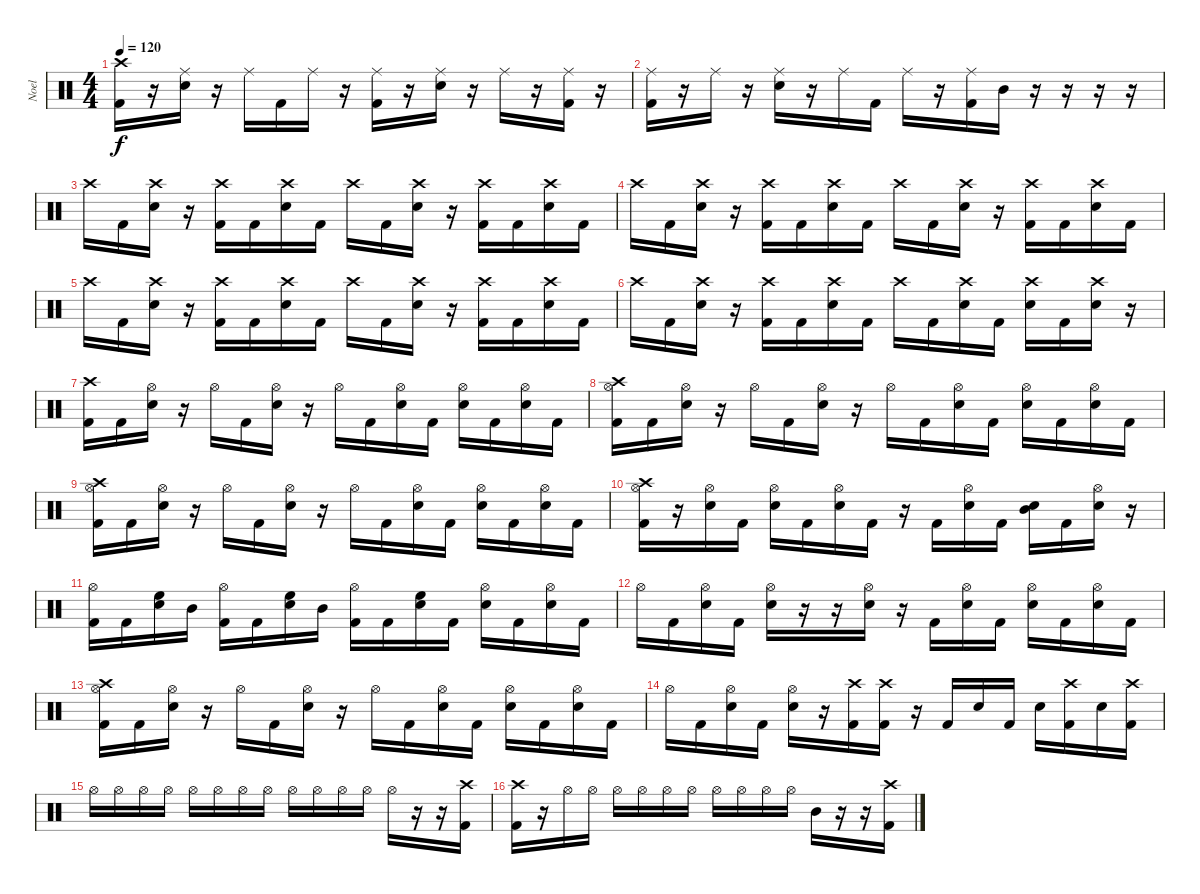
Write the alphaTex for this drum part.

\track ("Noel" "Noel") {instrument percussion}
\staff {score}
\articulation defaults
\ts (4 4)
\tempo 120
\clef neutral
\ks c
("Crash high (hit)" "Kick (hit) 2").16{dy f} r.16 ("Ride (middle)" "Snare (hit) 2").16 r.16 "Ride (middle)".16 "Kick (hit) 2".16 "Ride (middle)".16 r.16 ("Ride (middle)" "Kick (hit) 2").16 r.16 ("Ride (middle)" "Snare (hit) 2").16 r.16 "Ride (middle)".16 r.16 ("Ride (middle)" "Kick (hit) 2").16 r.16 |
("Ride (middle)" "Kick (hit) 2").16 r.16 "Ride (middle)".16 r.16 ("Ride (middle)" "Snare (hit) 2").16 r.16 "Ride (middle)".16 "Kick (hit) 2".16 "Ride (middle)".16 r.16 ("Ride (middle)" "Kick (hit) 2").16 "Mid Tom (hit)".16 r.16 r.16 r.16 r.16 |
"Crash high (hit)".16 "Kick (hit) 2".16 ("Crash high (hit)" "Snare (hit) 2").16 r.16 ("Crash high (hit)" "Kick (hit) 2").16 "Kick (hit) 2".16 ("Crash high (hit)" "Snare (hit) 2").16 "Kick (hit) 2".16 "Crash high (hit)".16 "Kick (hit) 2".16 ("Crash high (hit)" "Snare (hit) 2").16 r.16 ("Crash high (hit)" "Kick (hit) 2").16 "Kick (hit) 2".16 ("Crash high (hit)" "Snare (hit) 2").16 "Kick (hit) 2".16 |
"Crash high (hit)".16 "Kick (hit) 2".16 ("Crash high (hit)" "Snare (hit) 2").16 r.16 ("Crash high (hit)" "Kick (hit) 2").16 "Kick (hit) 2".16 ("Crash high (hit)" "Snare (hit) 2").16 "Kick (hit) 2".16 "Crash high (hit)".16 "Kick (hit) 2".16 ("Crash high (hit)" "Snare (hit) 2").16 r.16 ("Crash high (hit)" "Kick (hit) 2").16 "Kick (hit) 2".16 ("Crash high (hit)" "Snare (hit) 2").16 "Kick (hit) 2".16 |
"Crash high (hit)".16 "Kick (hit) 2".16 ("Crash high (hit)" "Snare (hit) 2").16 r.16 ("Crash high (hit)" "Kick (hit) 2").16 "Kick (hit) 2".16 ("Crash high (hit)" "Snare (hit) 2").16 "Kick (hit) 2".16 "Crash high (hit)".16 "Kick (hit) 2".16 ("Crash high (hit)" "Snare (hit) 2").16 r.16 ("Crash high (hit)" "Kick (hit) 2").16 "Kick (hit) 2".16 ("Crash high (hit)" "Snare (hit) 2").16 "Kick (hit) 2".16 |
"Crash high (hit)".16 "Kick (hit) 2".16 ("Crash high (hit)" "Snare (hit) 2").16 r.16 ("Crash high (hit)" "Kick (hit) 2").16 "Kick (hit) 2".16 ("Crash high (hit)" "Snare (hit) 2").16 "Kick (hit) 2".16 "Crash high (hit)".16 "Kick (hit) 2".16 ("Crash high (hit)" "Snare (hit) 2").16 "Kick (hit) 2".16 ("Crash high (hit)" "Snare (hit) 2").16 "Kick (hit) 2".16 ("Crash high (hit)" "Snare (hit) 2").16 r.16 |
("Crash high (hit)" "Kick (hit) 2").16 "Kick (hit) 2".16 ("Hi-Hat (open)" "Snare (hit) 2").16 r.16 "Hi-Hat (open)".16 "Kick (hit) 2".16 ("Hi-Hat (open)" "Snare (hit) 2").16 r.16 "Hi-Hat (open)".16 "Kick (hit) 2".16 ("Hi-Hat (open)" "Snare (hit) 2").16 "Kick (hit) 2".16 ("Hi-Hat (open)" "Snare (hit) 2").16 "Kick (hit) 2".16 ("Hi-Hat (open)" "Snare (hit) 2").16 "Kick (hit) 2".16 |
("Crash high (hit)" "Hi-Hat (open)" "Kick (hit) 2").16 "Kick (hit) 2".16 ("Hi-Hat (open)" "Snare (hit) 2").16 r.16 "Hi-Hat (open)".16 "Kick (hit) 2".16 ("Hi-Hat (open)" "Snare (hit) 2").16 r.16 "Hi-Hat (open)".16 "Kick (hit) 2".16 ("Hi-Hat (open)" "Snare (hit) 2").16 "Kick (hit) 2".16 ("Hi-Hat (open)" "Snare (hit) 2").16 "Kick (hit) 2".16 ("Hi-Hat (open)" "Snare (hit) 2").16 "Kick (hit) 2".16 |
("Crash high (hit)" "Hi-Hat (open)" "Kick (hit) 2").16 "Kick (hit) 2".16 ("Hi-Hat (open)" "Snare (hit) 2").16 r.16 "Hi-Hat (open)".16 "Kick (hit) 2".16 ("Hi-Hat (open)" "Snare (hit) 2").16 r.16 "Hi-Hat (open)".16 "Kick (hit) 2".16 ("Hi-Hat (open)" "Snare (hit) 2").16 "Kick (hit) 2".16 ("Hi-Hat (open)" "Snare (hit) 2").16 "Kick (hit) 2".16 ("Hi-Hat (open)" "Snare (hit) 2").16 "Kick (hit) 2".16 |
("Crash high (hit)" "Hi-Hat (open)" "Kick (hit) 2").16 r.16 ("Hi-Hat (open)" "Snare (hit) 2").16 "Kick (hit) 2".16 ("Hi-Hat (open)" "Snare (hit) 2").16 "Kick (hit) 2".16 ("Hi-Hat (open)" "Snare (hit) 2").16 "Kick (hit) 2".16 r.16 "Kick (hit) 2".16 ("Hi-Hat (open)" "Snare (hit) 2").16 "Kick (hit) 2".16 ("Snare (hit) 2" "Mid Tom (hit)").16 "Kick (hit) 2".16 ("Hi-Hat (open)" "Snare (hit) 2").16 r.16 |
("Hi-Hat (open)" "Kick (hit) 2").16 "Kick (hit) 2".16 ("High Floor Tom (hit)" "Snare (hit) 2").16 "Mid Tom (hit)".16 ("Hi-Hat (open)" "Kick (hit) 2").16 "Kick (hit) 2".16 ("High Floor Tom (hit)" "Snare (hit) 2").16 "Mid Tom (hit)".16 ("Hi-Hat (open)" "Kick (hit) 2").16 "Kick (hit) 2".16 ("High Floor Tom (hit)" "Snare (hit) 2").16 "Kick (hit) 2".16 ("Hi-Hat (open)" "Snare (hit) 2").16 "Kick (hit) 2".16 ("Hi-Hat (open)" "Snare (hit) 2").16 "Kick (hit) 2".16 |
"Hi-Hat (open)".16 "Kick (hit) 2".16 ("Hi-Hat (open)" "Snare (hit) 2").16 "Kick (hit) 2".16 ("Hi-Hat (open)" "Snare (hit) 2").16 r.16 r.16 ("Hi-Hat (open)" "Snare (hit) 2").16 r.16 "Kick (hit) 2".16 ("Hi-Hat (open)" "Snare (hit) 2").16 "Kick (hit) 2".16 ("Hi-Hat (open)" "Snare (hit) 2").16 "Kick (hit) 2".16 ("Hi-Hat (open)" "Snare (hit) 2").16 "Kick (hit) 2".16 |
("Crash high (hit)" "Hi-Hat (open)" "Kick (hit) 2").16 "Kick (hit) 2".16 ("Hi-Hat (open)" "Snare (hit) 2").16 r.16 "Hi-Hat (open)".16 "Kick (hit) 2".16 ("Hi-Hat (open)" "Snare (hit) 2").16 r.16 "Hi-Hat (open)".16 "Kick (hit) 2".16 ("Hi-Hat (open)" "Snare (hit) 2").16 "Kick (hit) 2".16 ("Hi-Hat (open)" "Snare (hit) 2").16 "Kick (hit) 2".16 ("Hi-Hat (open)" "Snare (hit) 2").16 "Kick (hit) 2".16 |
"Hi-Hat (open)".16 "Kick (hit) 2".16 ("Hi-Hat (open)" "Snare (hit) 2").16 "Kick (hit) 2".16 ("Hi-Hat (open)" "Snare (hit) 2").16 r.16 ("Crash high (hit)" "Kick (hit) 2").16 ("Crash high (hit)" "Kick (hit) 2").16 r.16 "Kick (hit) 2".16 "Snare (hit) 2".16 "Kick (hit) 2".16 "Snare (hit) 2".16 ("Crash high (hit)" "Kick (hit) 2").16 "Snare (hit) 2".16 ("Crash high (hit)" "Kick (hit) 2").16 |
"Hi-Hat (open)".16 "Hi-Hat (open)".16 "Hi-Hat (open)".16 "Hi-Hat (open)".16 "Hi-Hat (open)".16 "Hi-Hat (open)".16 "Hi-Hat (open)".16 "Hi-Hat (open)".16 "Hi-Hat (open)".16 "Hi-Hat (open)".16 "Hi-Hat (open)".16 "Hi-Hat (open)".16 "Hi-Hat (open)".16 r.16 r.16 ("Crash high (hit)" "Kick (hit) 2").16 |
("Crash high (hit)" "Kick (hit) 2").16 r.16 "Hi-Hat (open)".16 "Hi-Hat (open)".16 "Hi-Hat (open)".16 "Hi-Hat (open)".16 "Hi-Hat (open)".16 "Hi-Hat (open)".16 "Hi-Hat (open)".16 "Hi-Hat (open)".16 "Hi-Hat (open)".16 "Hi-Hat (open)".16 "Mid Tom (hit)".16 r.16 r.16 ("Crash high (hit)" "Kick (hit) 2").16
